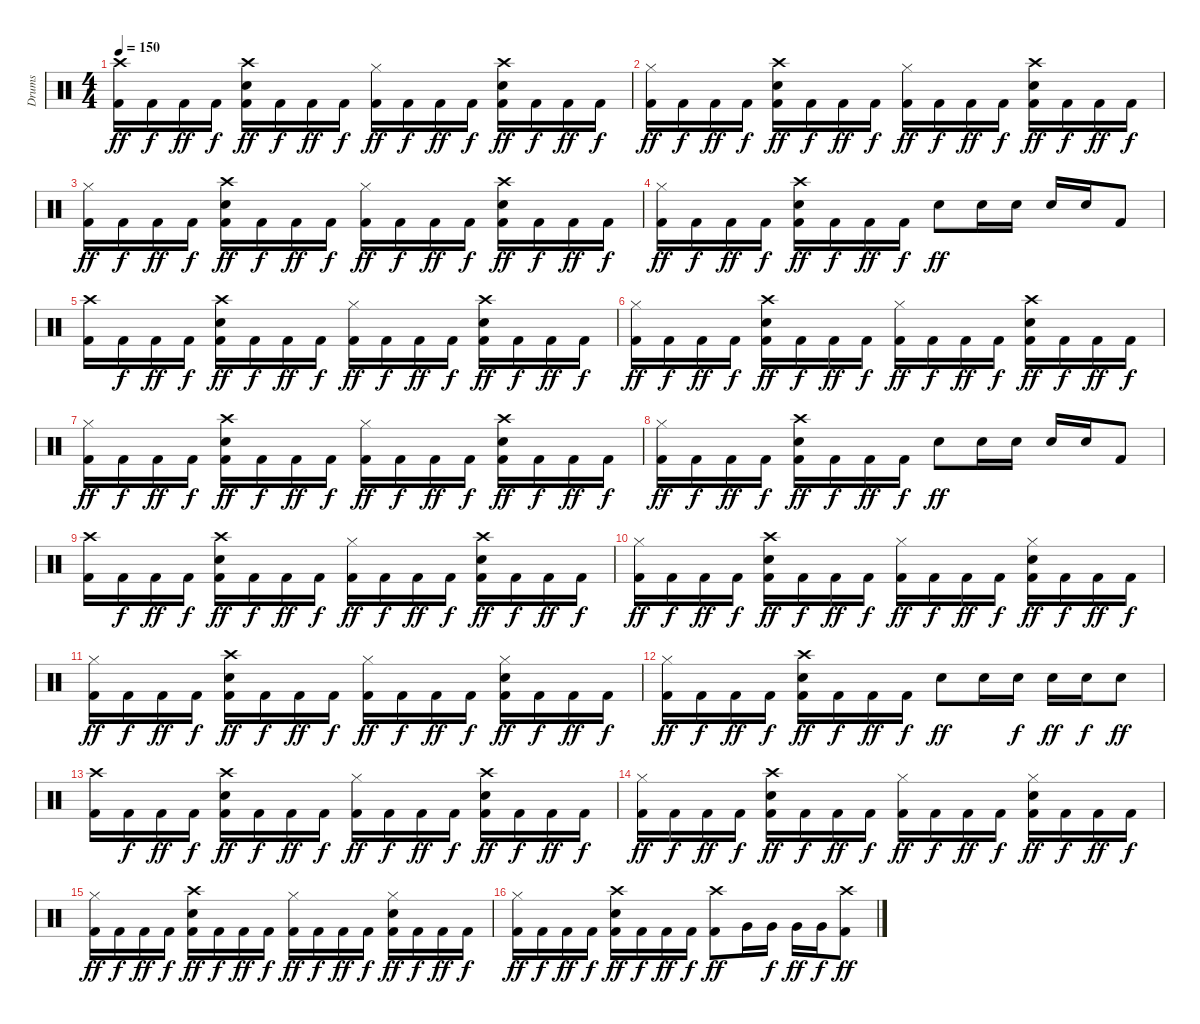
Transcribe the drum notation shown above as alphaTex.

\track ("Drums" "Drums") {instrument percussion}
\staff {score}
\articulation defaults
\ts (4 4)
\tempo 150
\clef neutral
\ks c
("Crash high (hit)" "Kick (hit) 2").16{dy ff} "Kick (hit) 2".16{dy f} "Kick (hit) 2".16{dy ff} "Kick (hit) 2".16{dy f} ("Kick (hit) 2" "Crash high (hit)" "Snare (hit) 2").16{dy ff} "Kick (hit) 2".16{dy f} "Kick (hit) 2".16{dy ff} "Kick (hit) 2".16{dy f} ("Hi-Hat (closed)" "Kick (hit) 2").16{dy ff} "Kick (hit) 2".16{dy f} "Kick (hit) 2".16{dy ff} "Kick (hit) 2".16{dy f} ("Kick (hit) 2" "Crash high (hit)" "Snare (hit) 2").16{dy ff} "Kick (hit) 2".16{dy f} "Kick (hit) 2".16{dy ff} "Kick (hit) 2".16{dy f} |
("Hi-Hat (closed)" "Kick (hit) 2").16{dy ff} "Kick (hit) 2".16{dy f} "Kick (hit) 2".16{dy ff} "Kick (hit) 2".16{dy f} ("Kick (hit) 2" "Crash high (hit)" "Snare (hit) 2").16{dy ff} "Kick (hit) 2".16{dy f} "Kick (hit) 2".16{dy ff} "Kick (hit) 2".16{dy f} ("Hi-Hat (closed)" "Kick (hit) 2").16{dy ff} "Kick (hit) 2".16{dy f} "Kick (hit) 2".16{dy ff} "Kick (hit) 2".16{dy f} ("Kick (hit) 2" "Crash high (hit)" "Snare (hit) 2").16{dy ff} "Kick (hit) 2".16{dy f} "Kick (hit) 2".16{dy ff} "Kick (hit) 2".16{dy f} |
("Hi-Hat (closed)" "Kick (hit) 2").16{dy ff} "Kick (hit) 2".16{dy f} "Kick (hit) 2".16{dy ff} "Kick (hit) 2".16{dy f} ("Kick (hit) 2" "Crash high (hit)" "Snare (hit) 2").16{dy ff} "Kick (hit) 2".16{dy f} "Kick (hit) 2".16{dy ff} "Kick (hit) 2".16{dy f} ("Hi-Hat (closed)" "Kick (hit) 2").16{dy ff} "Kick (hit) 2".16{dy f} "Kick (hit) 2".16{dy ff} "Kick (hit) 2".16{dy f} ("Kick (hit) 2" "Crash high (hit)" "Snare (hit) 2").16{dy ff} "Kick (hit) 2".16{dy f} "Kick (hit) 2".16{dy ff} "Kick (hit) 2".16{dy f} |
("Hi-Hat (closed)" "Kick (hit) 2").16{dy ff} "Kick (hit) 2".16{dy f} "Kick (hit) 2".16{dy ff} "Kick (hit) 2".16{dy f} ("Kick (hit) 2" "Crash high (hit)" "Snare (hit) 2").16{dy ff} "Kick (hit) 2".16{dy f} "Kick (hit) 2".16{dy ff} "Kick (hit) 2".16{dy f} "Snare (hit) 2".8{dy ff} "Snare (hit) 2".16 "Snare (hit) 2".16 "Snare (hit) 2".16 "Snare (hit) 2".16 "Kick (hit) 2".8 |
("Crash high (hit)" "Kick (hit) 2").16 "Kick (hit) 2".16{dy f} "Kick (hit) 2".16{dy ff} "Kick (hit) 2".16{dy f} ("Kick (hit) 2" "Crash high (hit)" "Snare (hit) 2").16{dy ff} "Kick (hit) 2".16{dy f} "Kick (hit) 2".16{dy ff} "Kick (hit) 2".16{dy f} ("Hi-Hat (closed)" "Kick (hit) 2").16{dy ff} "Kick (hit) 2".16{dy f} "Kick (hit) 2".16{dy ff} "Kick (hit) 2".16{dy f} ("Kick (hit) 2" "Crash high (hit)" "Snare (hit) 2").16{dy ff} "Kick (hit) 2".16{dy f} "Kick (hit) 2".16{dy ff} "Kick (hit) 2".16{dy f} |
("Hi-Hat (closed)" "Kick (hit) 2").16{dy ff} "Kick (hit) 2".16{dy f} "Kick (hit) 2".16{dy ff} "Kick (hit) 2".16{dy f} ("Kick (hit) 2" "Crash high (hit)" "Snare (hit) 2").16{dy ff} "Kick (hit) 2".16{dy f} "Kick (hit) 2".16{dy ff} "Kick (hit) 2".16{dy f} ("Hi-Hat (closed)" "Kick (hit) 2").16{dy ff} "Kick (hit) 2".16{dy f} "Kick (hit) 2".16{dy ff} "Kick (hit) 2".16{dy f} ("Kick (hit) 2" "Crash high (hit)" "Snare (hit) 2").16{dy ff} "Kick (hit) 2".16{dy f} "Kick (hit) 2".16{dy ff} "Kick (hit) 2".16{dy f} |
("Hi-Hat (closed)" "Kick (hit) 2").16{dy ff} "Kick (hit) 2".16{dy f} "Kick (hit) 2".16{dy ff} "Kick (hit) 2".16{dy f} ("Kick (hit) 2" "Crash high (hit)" "Snare (hit) 2").16{dy ff} "Kick (hit) 2".16{dy f} "Kick (hit) 2".16{dy ff} "Kick (hit) 2".16{dy f} ("Hi-Hat (closed)" "Kick (hit) 2").16{dy ff} "Kick (hit) 2".16{dy f} "Kick (hit) 2".16{dy ff} "Kick (hit) 2".16{dy f} ("Kick (hit) 2" "Crash high (hit)" "Snare (hit) 2").16{dy ff} "Kick (hit) 2".16{dy f} "Kick (hit) 2".16{dy ff} "Kick (hit) 2".16{dy f} |
("Hi-Hat (closed)" "Kick (hit) 2").16{dy ff} "Kick (hit) 2".16{dy f} "Kick (hit) 2".16{dy ff} "Kick (hit) 2".16{dy f} ("Kick (hit) 2" "Crash high (hit)" "Snare (hit) 2").16{dy ff} "Kick (hit) 2".16{dy f} "Kick (hit) 2".16{dy ff} "Kick (hit) 2".16{dy f} "Snare (hit) 2".8{dy ff} "Snare (hit) 2".16 "Snare (hit) 2".16 "Snare (hit) 2".16 "Snare (hit) 2".16 "Kick (hit) 2".8 |
("Crash high (hit)" "Kick (hit) 2").16 "Kick (hit) 2".16{dy f} "Kick (hit) 2".16{dy ff} "Kick (hit) 2".16{dy f} ("Kick (hit) 2" "Crash high (hit)" "Snare (hit) 2").16{dy ff} "Kick (hit) 2".16{dy f} "Kick (hit) 2".16{dy ff} "Kick (hit) 2".16{dy f} ("Hi-Hat (closed)" "Kick (hit) 2").16{dy ff} "Kick (hit) 2".16{dy f} "Kick (hit) 2".16{dy ff} "Kick (hit) 2".16{dy f} ("Kick (hit) 2" "Crash high (hit)" "Snare (hit) 2").16{dy ff} "Kick (hit) 2".16{dy f} "Kick (hit) 2".16{dy ff} "Kick (hit) 2".16{dy f} |
("Hi-Hat (closed)" "Kick (hit) 2").16{dy ff} "Kick (hit) 2".16{dy f} "Kick (hit) 2".16{dy ff} "Kick (hit) 2".16{dy f} ("Kick (hit) 2" "Crash high (hit)" "Snare (hit) 2").16{dy ff} "Kick (hit) 2".16{dy f} "Kick (hit) 2".16{dy ff} "Kick (hit) 2".16{dy f} ("Hi-Hat (closed)" "Kick (hit) 2").16{dy ff} "Kick (hit) 2".16{dy f} "Kick (hit) 2".16{dy ff} "Kick (hit) 2".16{dy f} ("Snare (hit) 2" "Hi-Hat (closed)" "Kick (hit) 2").16{dy ff} "Kick (hit) 2".16{dy f} "Kick (hit) 2".16{dy ff} "Kick (hit) 2".16{dy f} |
("Hi-Hat (closed)" "Kick (hit) 2").16{dy ff} "Kick (hit) 2".16{dy f} "Kick (hit) 2".16{dy ff} "Kick (hit) 2".16{dy f} ("Kick (hit) 2" "Crash high (hit)" "Snare (hit) 2").16{dy ff} "Kick (hit) 2".16{dy f} "Kick (hit) 2".16{dy ff} "Kick (hit) 2".16{dy f} ("Hi-Hat (closed)" "Kick (hit) 2").16{dy ff} "Kick (hit) 2".16{dy f} "Kick (hit) 2".16{dy ff} "Kick (hit) 2".16{dy f} ("Snare (hit) 2" "Hi-Hat (closed)" "Kick (hit) 2").16{dy ff} "Kick (hit) 2".16{dy f} "Kick (hit) 2".16{dy ff} "Kick (hit) 2".16{dy f} |
("Hi-Hat (closed)" "Kick (hit) 2").16{dy ff} "Kick (hit) 2".16{dy f} "Kick (hit) 2".16{dy ff} "Kick (hit) 2".16{dy f} ("Kick (hit) 2" "Crash high (hit)" "Snare (hit) 2").16{dy ff} "Kick (hit) 2".16{dy f} "Kick (hit) 2".16{dy ff} "Kick (hit) 2".16{dy f} "Snare (hit) 2".8{dy ff} "Snare (hit) 2".16 "Snare (hit) 2".16{dy f} "Snare (hit) 2".16{dy ff} "Snare (hit) 2".16{dy f} "Snare (hit) 2".8{dy ff} |
("Crash high (hit)" "Kick (hit) 2").16 "Kick (hit) 2".16{dy f} "Kick (hit) 2".16{dy ff} "Kick (hit) 2".16{dy f} ("Kick (hit) 2" "Crash high (hit)" "Snare (hit) 2").16{dy ff} "Kick (hit) 2".16{dy f} "Kick (hit) 2".16{dy ff} "Kick (hit) 2".16{dy f} ("Hi-Hat (closed)" "Kick (hit) 2").16{dy ff} "Kick (hit) 2".16{dy f} "Kick (hit) 2".16{dy ff} "Kick (hit) 2".16{dy f} ("Kick (hit) 2" "Crash high (hit)" "Snare (hit) 2").16{dy ff} "Kick (hit) 2".16{dy f} "Kick (hit) 2".16{dy ff} "Kick (hit) 2".16{dy f} |
("Hi-Hat (closed)" "Kick (hit) 2").16{dy ff} "Kick (hit) 2".16{dy f} "Kick (hit) 2".16{dy ff} "Kick (hit) 2".16{dy f} ("Kick (hit) 2" "Crash high (hit)" "Snare (hit) 2").16{dy ff} "Kick (hit) 2".16{dy f} "Kick (hit) 2".16{dy ff} "Kick (hit) 2".16{dy f} ("Hi-Hat (closed)" "Kick (hit) 2").16{dy ff} "Kick (hit) 2".16{dy f} "Kick (hit) 2".16{dy ff} "Kick (hit) 2".16{dy f} ("Snare (hit) 2" "Hi-Hat (closed)" "Kick (hit) 2").16{dy ff} "Kick (hit) 2".16{dy f} "Kick (hit) 2".16{dy ff} "Kick (hit) 2".16{dy f} |
("Hi-Hat (closed)" "Kick (hit) 2").16{dy ff} "Kick (hit) 2".16{dy f} "Kick (hit) 2".16{dy ff} "Kick (hit) 2".16{dy f} ("Kick (hit) 2" "Crash high (hit)" "Snare (hit) 2").16{dy ff} "Kick (hit) 2".16{dy f} "Kick (hit) 2".16{dy ff} "Kick (hit) 2".16{dy f} ("Hi-Hat (closed)" "Kick (hit) 2").16{dy ff} "Kick (hit) 2".16{dy f} "Kick (hit) 2".16{dy ff} "Kick (hit) 2".16{dy f} ("Snare (hit) 2" "Hi-Hat (closed)" "Kick (hit) 2").16{dy ff} "Kick (hit) 2".16{dy f} "Kick (hit) 2".16{dy ff} "Kick (hit) 2".16{dy f} |
("Hi-Hat (closed)" "Kick (hit) 2").16{dy ff} "Kick (hit) 2".16{dy f} "Kick (hit) 2".16{dy ff} "Kick (hit) 2".16{dy f} ("Kick (hit) 2" "Crash high (hit)" "Snare (hit) 2").16{dy ff} "Kick (hit) 2".16{dy f} "Kick (hit) 2".16{dy ff} "Kick (hit) 2".16{dy f} ("Crash high (hit)" "Kick (hit) 2").8{dy ff} "Very Low Tom (hit)".16 "Very Low Tom (hit)".16{dy f} "Very Low Tom (hit)".16{dy ff} "Very Low Tom (hit)".16{dy f} ("Crash high (hit)" "Kick (hit) 2").8{dy ff}
